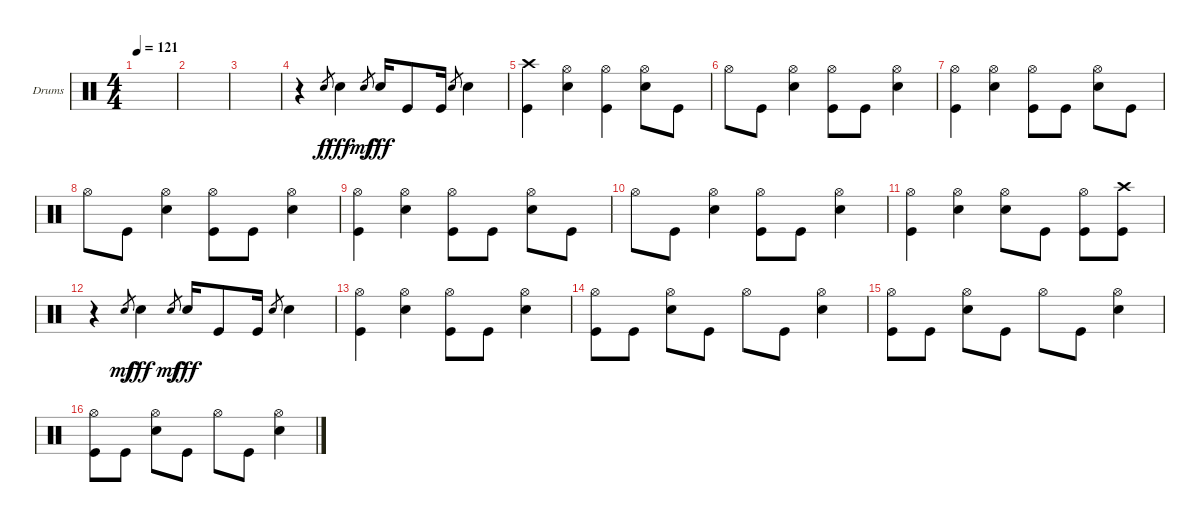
\bracketExtendMode groupsimilarinstruments
\firstSystemTrackNameOrientation horizontal
\otherSystemsTrackNameOrientation horizontal
\track ("Drumkit" "Drums") {instrument percussion}
\staff {score}
\articulation defaults
\ts (4 4)
\tempo 121
\clef neutral
\ks c
|
|
|
r.4 "Snare (hit) 2".8{gr} "Snare (hit) 2".4{dy fff} "Snare (hit) 2".8{gr dy mf} "Snare (hit) 2".16{dy fff} "Kick (hit)".8 "Kick (hit)".16 "Snare (hit) 2".8{gr} "Snare (hit) 2".4 |
("Kick (hit)" "Crash high (hit)").4 ("Snare (hit) 2" "Hi-Hat (open)").4 ("Kick (hit)" "Hi-Hat (open)").4 ("Snare (hit) 2" "Hi-Hat (open)").8 "Kick (hit)".8 |
"Hi-Hat (open)".8 "Kick (hit)".8 ("Hi-Hat (open)" "Snare (hit) 2").4 ("Hi-Hat (open)" "Kick (hit)").8 "Kick (hit)".8 ("Snare (hit) 2" "Hi-Hat (open)").4 |
("Kick (hit)" "Hi-Hat (open)").4 ("Snare (hit) 2" "Hi-Hat (open)").4 ("Kick (hit)" "Hi-Hat (open)").8 "Kick (hit)".8 ("Snare (hit) 2" "Hi-Hat (open)").8 "Kick (hit)".8 |
"Hi-Hat (open)".8 "Kick (hit)".8 ("Snare (hit) 2" "Hi-Hat (open)").4 ("Kick (hit)" "Hi-Hat (open)").8 "Kick (hit)".8 ("Snare (hit) 2" "Hi-Hat (open)").4 |
("Kick (hit)" "Hi-Hat (open)").4 ("Snare (hit) 2" "Hi-Hat (open)").4 ("Kick (hit)" "Hi-Hat (open)").8 "Kick (hit)".8 ("Snare (hit) 2" "Hi-Hat (open)").8 "Kick (hit)".8 |
"Hi-Hat (open)".8 "Kick (hit)".8 ("Snare (hit) 2" "Hi-Hat (open)").4 ("Kick (hit)" "Hi-Hat (open)").8 "Kick (hit)".8 ("Snare (hit) 2" "Hi-Hat (open)").4 |
("Kick (hit)" "Hi-Hat (open)").4 ("Snare (hit) 2" "Hi-Hat (open)").4 ("Hi-Hat (open)" "Snare (hit) 2").8 "Kick (hit)".8 ("Hi-Hat (open)" "Kick (hit)").8 ("Kick (hit)" "Crash high (hit)").8 |
r.4 "Snare (hit) 2".8{gr dy mf} "Snare (hit) 2".4{dy fff} "Snare (hit) 2".8{gr dy mf} "Snare (hit) 2".16{dy fff} "Kick (hit)".8 "Kick (hit)".16 "Snare (hit) 2".8{gr} "Snare (hit) 2".4 |
("Kick (hit)" "Hi-Hat (open)").4 ("Hi-Hat (open)" "Snare (hit) 2").4 ("Kick (hit)" "Hi-Hat (open)").8 "Kick (hit)".8 ("Snare (hit) 2" "Hi-Hat (open)").4 |
("Kick (hit)" "Hi-Hat (open)").8 "Kick (hit)".8 ("Snare (hit) 2" "Hi-Hat (open)").8 "Kick (hit)".8 "Hi-Hat (open)".8 "Kick (hit)".8 ("Snare (hit) 2" "Hi-Hat (open)").4 |
("Kick (hit)" "Hi-Hat (open)").8 "Kick (hit)".8 ("Snare (hit) 2" "Hi-Hat (open)").8 "Kick (hit)".8 "Hi-Hat (open)".8 "Kick (hit)".8 ("Snare (hit) 2" "Hi-Hat (open)").4 |
("Kick (hit)" "Hi-Hat (open)").8 "Kick (hit)".8 ("Snare (hit) 2" "Hi-Hat (open)").8 "Kick (hit)".8 "Hi-Hat (open)".8 "Kick (hit)".8 ("Snare (hit) 2" "Hi-Hat (open)").4
